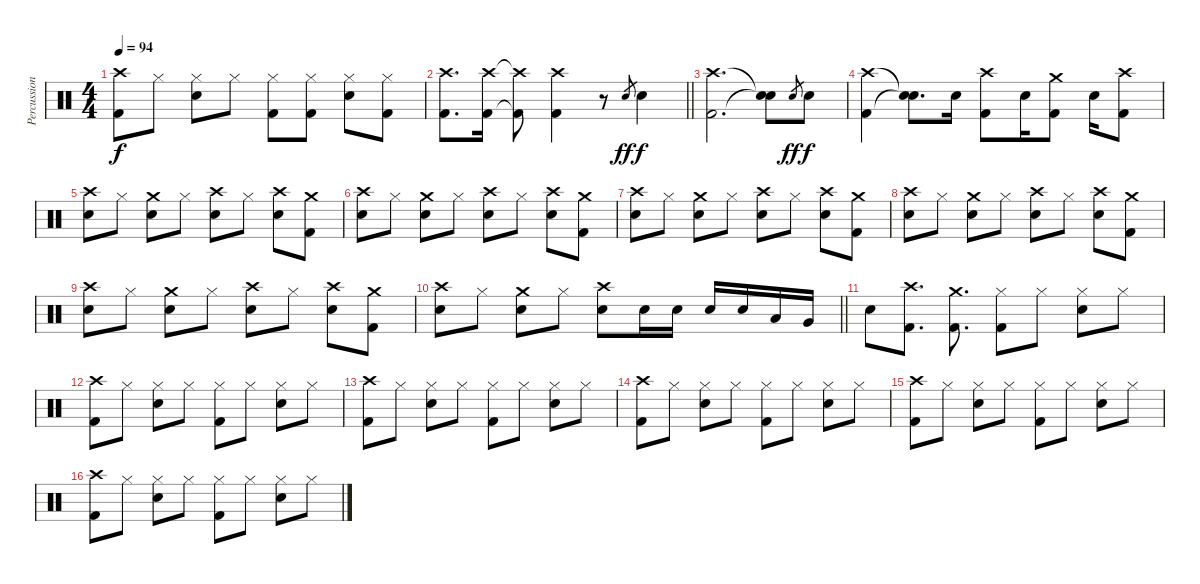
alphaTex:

\track ("Percussion" "Percussion") {instrument percussion}
\staff {score}
\articulation defaults
\ts (4 4)
\tempo 94
\clef neutral
\ks c
("Crash high (hit)" "Kick (hit) 2").8{dy f} "Hi-Hat (closed)".8 ("Hi-Hat (closed)" "Snare (hit) 2").8 "Hi-Hat (closed)".8 ("Hi-Hat (closed)" "Kick (hit) 2").8 ("Hi-Hat (closed)" "Kick (hit) 2").8 ("Hi-Hat (closed)" "Snare (hit) 2").8 ("Hi-Hat (closed)" "Kick (hit) 2").8 |
\barLineRight lightlight
("Crash high (hit)" "Kick (hit) 2").8{d} ("Crash high (hit)" "Kick (hit) 2").16 ("Crash high (hit)"{t} "Kick (hit) 2"{t}).8 ("Crash high (hit)" "Kick (hit) 2").4 r.8 "Snare (hit) 2".8{gr dy ff} "Snare (hit) 2".4{dy f} |
("Crash high (hit)" "Kick (hit) 2").2{d} ("Snare (hit)"{t} "Snare (hit)"{t}).8 "Snare (hit) 2".8{gr dy ff} "Snare (hit) 2".8{dy f} |
("Crash high (hit)" "Kick (hit) 2").4 ("Snare (hit)"{t} "Snare (hit)"{t}).8{d} "Snare (hit) 2".16 ("Crash high (hit)" "Kick (hit) 2").8 "Snare (hit) 2".16 ("Crash medium (hit)" "Kick (hit) 2").8 "Snare (hit) 2".16 ("Crash high (hit)" "Kick (hit) 2").8 |
("Crash high (hit)" "Snare (hit) 2").8 "Hi-Hat (closed)".8 ("Crash medium (hit)" "Snare (hit) 2").8 "Hi-Hat (closed)".8 ("Crash high (hit)" "Snare (hit) 2").8 "Hi-Hat (closed)".8 ("Crash high (hit)" "Snare (hit) 2").8 ("Crash medium (hit)" "Kick (hit) 2").8 |
("Crash high (hit)" "Snare (hit) 2").8 "Hi-Hat (closed)".8 ("Crash medium (hit)" "Snare (hit) 2").8 "Hi-Hat (closed)".8 ("Crash high (hit)" "Snare (hit) 2").8 "Hi-Hat (closed)".8 ("Crash high (hit)" "Snare (hit) 2").8 ("Crash medium (hit)" "Kick (hit) 2").8 |
("Crash high (hit)" "Snare (hit) 2").8 "Hi-Hat (closed)".8 ("Crash medium (hit)" "Snare (hit) 2").8 "Hi-Hat (closed)".8 ("Crash high (hit)" "Snare (hit) 2").8 "Hi-Hat (closed)".8 ("Crash high (hit)" "Snare (hit) 2").8 ("Crash medium (hit)" "Kick (hit) 2").8 |
("Crash high (hit)" "Snare (hit) 2").8 "Hi-Hat (closed)".8 ("Crash medium (hit)" "Snare (hit) 2").8 "Hi-Hat (closed)".8 ("Crash high (hit)" "Snare (hit) 2").8 "Hi-Hat (closed)".8 ("Crash high (hit)" "Snare (hit) 2").8 ("Crash medium (hit)" "Kick (hit) 2").8 |
("Crash high (hit)" "Snare (hit) 2").8 "Hi-Hat (closed)".8 ("Crash medium (hit)" "Snare (hit) 2").8 "Hi-Hat (closed)".8 ("Crash high (hit)" "Snare (hit) 2").8 "Hi-Hat (closed)".8 ("Crash high (hit)" "Snare (hit) 2").8 ("Crash medium (hit)" "Kick (hit) 2").8 |
\barLineRight lightlight
("Crash high (hit)" "Snare (hit) 2").8 "Hi-Hat (closed)".8 ("Crash medium (hit)" "Snare (hit) 2").8 "Hi-Hat (closed)".8 ("Crash high (hit)" "Snare (hit) 2").8 "Snare (hit) 2".16 "Snare (hit) 2".16 "Snare (hit) 2".16 "Snare (hit) 2".16 "Low Tom (hit)".16 "Very Low Tom (hit)".16 |
"Snare (hit) 2".8 ("Crash high (hit)" "Kick (hit) 2").8{d} ("Crash medium (hit)" "Kick (hit) 2").8{d} ("Hi-Hat (closed)" "Kick (hit) 2").8 "Hi-Hat (closed)".8 ("Hi-Hat (closed)" "Snare (hit) 2").8 "Hi-Hat (closed)".8 |
("Crash high (hit)" "Kick (hit) 2").8 "Hi-Hat (closed)".8 ("Hi-Hat (closed)" "Snare (hit) 2").8 "Hi-Hat (closed)".8 ("Hi-Hat (closed)" "Kick (hit) 2").8 "Hi-Hat (closed)".8 ("Hi-Hat (closed)" "Snare (hit) 2").8 "Hi-Hat (closed)".8 |
("Crash high (hit)" "Kick (hit) 2").8 "Hi-Hat (closed)".8 ("Hi-Hat (closed)" "Snare (hit) 2").8 "Hi-Hat (closed)".8 ("Hi-Hat (closed)" "Kick (hit) 2").8 "Hi-Hat (closed)".8 ("Hi-Hat (closed)" "Snare (hit) 2").8 "Hi-Hat (closed)".8 |
("Crash high (hit)" "Kick (hit) 2").8 "Hi-Hat (closed)".8 ("Hi-Hat (closed)" "Snare (hit) 2").8 "Hi-Hat (closed)".8 ("Hi-Hat (closed)" "Kick (hit) 2").8 "Hi-Hat (closed)".8 ("Hi-Hat (closed)" "Snare (hit) 2").8 "Hi-Hat (closed)".8 |
("Crash high (hit)" "Kick (hit) 2").8 "Hi-Hat (closed)".8 ("Hi-Hat (closed)" "Snare (hit) 2").8 "Hi-Hat (closed)".8 ("Hi-Hat (closed)" "Kick (hit) 2").8 "Hi-Hat (closed)".8 ("Hi-Hat (closed)" "Snare (hit) 2").8 "Hi-Hat (closed)".8 |
("Crash high (hit)" "Kick (hit) 2").8 "Hi-Hat (closed)".8 ("Hi-Hat (closed)" "Snare (hit) 2").8 "Hi-Hat (closed)".8 ("Hi-Hat (closed)" "Kick (hit) 2").8 "Hi-Hat (closed)".8 ("Hi-Hat (closed)" "Snare (hit) 2").8 "Hi-Hat (closed)".8
